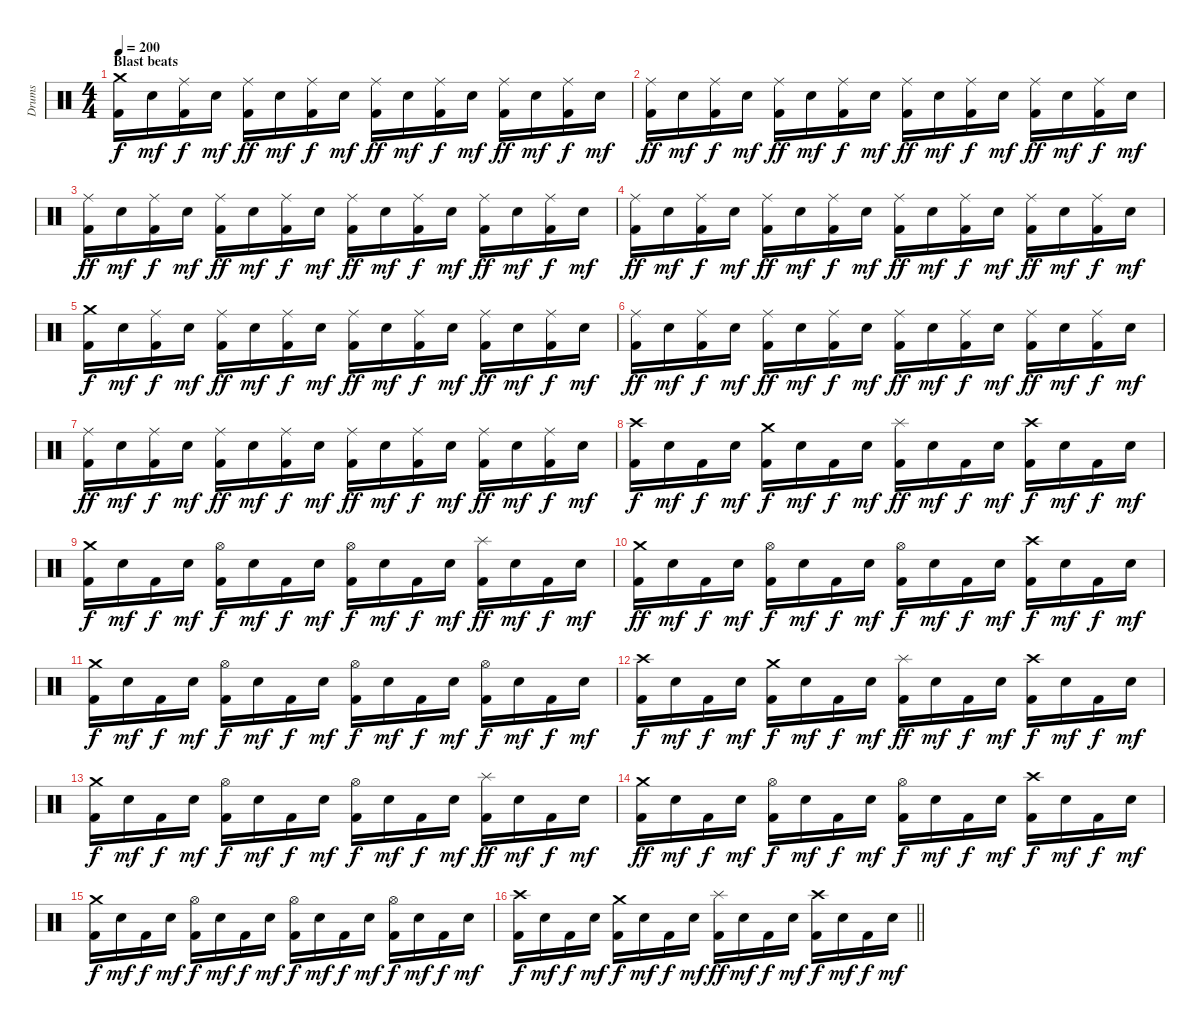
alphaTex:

\track ("Drums" "Drums") {instrument percussion}
\staff {score}
\articulation defaults
\ts (4 4)
\section ("" "Blast beats")
\tempo 200
\clef neutral
\ks c
("Crash medium (hit)" "Kick (hit) 2").16{dy f} "Electric Snare (hit)".16{dy mf} ("Ride (middle)" "Kick (hit) 2").16{dy f} "Electric Snare (hit)".16{dy mf} ("Ride (middle)" "Kick (hit) 2").16{dy ff} "Electric Snare (hit)".16{dy mf} ("Ride (middle)" "Kick (hit) 2").16{dy f} "Electric Snare (hit)".16{dy mf} ("Ride (middle)" "Kick (hit) 2").16{dy ff} "Electric Snare (hit)".16{dy mf} ("Ride (middle)" "Kick (hit) 2").16{dy f} "Electric Snare (hit)".16{dy mf} ("Ride (middle)" "Kick (hit) 2").16{dy ff} "Electric Snare (hit)".16{dy mf} ("Ride (middle)" "Kick (hit) 2").16{dy f} "Electric Snare (hit)".16{dy mf} |
("Ride (middle)" "Kick (hit) 2").16{dy ff} "Electric Snare (hit)".16{dy mf} ("Ride (middle)" "Kick (hit) 2").16{dy f} "Electric Snare (hit)".16{dy mf} ("Ride (middle)" "Kick (hit) 2").16{dy ff} "Electric Snare (hit)".16{dy mf} ("Ride (middle)" "Kick (hit) 2").16{dy f} "Electric Snare (hit)".16{dy mf} ("Ride (middle)" "Kick (hit) 2").16{dy ff} "Electric Snare (hit)".16{dy mf} ("Ride (middle)" "Kick (hit) 2").16{dy f} "Electric Snare (hit)".16{dy mf} ("Ride (middle)" "Kick (hit) 2").16{dy ff} "Electric Snare (hit)".16{dy mf} ("Ride (middle)" "Kick (hit) 2").16{dy f} "Electric Snare (hit)".16{dy mf} |
("Ride (middle)" "Kick (hit) 2").16{dy ff} "Electric Snare (hit)".16{dy mf} ("Ride (middle)" "Kick (hit) 2").16{dy f} "Electric Snare (hit)".16{dy mf} ("Ride (middle)" "Kick (hit) 2").16{dy ff} "Electric Snare (hit)".16{dy mf} ("Ride (middle)" "Kick (hit) 2").16{dy f} "Electric Snare (hit)".16{dy mf} ("Ride (middle)" "Kick (hit) 2").16{dy ff} "Electric Snare (hit)".16{dy mf} ("Ride (middle)" "Kick (hit) 2").16{dy f} "Electric Snare (hit)".16{dy mf} ("Ride (middle)" "Kick (hit) 2").16{dy ff} "Electric Snare (hit)".16{dy mf} ("Ride (middle)" "Kick (hit) 2").16{dy f} "Electric Snare (hit)".16{dy mf} |
("Ride (middle)" "Kick (hit) 2").16{dy ff} "Electric Snare (hit)".16{dy mf} ("Ride (middle)" "Kick (hit) 2").16{dy f} "Electric Snare (hit)".16{dy mf} ("Ride (middle)" "Kick (hit) 2").16{dy ff} "Electric Snare (hit)".16{dy mf} ("Ride (middle)" "Kick (hit) 2").16{dy f} "Electric Snare (hit)".16{dy mf} ("Ride (middle)" "Kick (hit) 2").16{dy ff} "Electric Snare (hit)".16{dy mf} ("Ride (middle)" "Kick (hit) 2").16{dy f} "Electric Snare (hit)".16{dy mf} ("Ride (middle)" "Kick (hit) 2").16{dy ff} "Electric Snare (hit)".16{dy mf} ("Ride (middle)" "Kick (hit) 2").16{dy f} "Electric Snare (hit)".16{dy mf} |
("Crash medium (hit)" "Kick (hit) 2").16{dy f} "Electric Snare (hit)".16{dy mf} ("Ride (middle)" "Kick (hit) 2").16{dy f} "Electric Snare (hit)".16{dy mf} ("Ride (middle)" "Kick (hit) 2").16{dy ff} "Electric Snare (hit)".16{dy mf} ("Ride (middle)" "Kick (hit) 2").16{dy f} "Electric Snare (hit)".16{dy mf} ("Ride (middle)" "Kick (hit) 2").16{dy ff} "Electric Snare (hit)".16{dy mf} ("Ride (middle)" "Kick (hit) 2").16{dy f} "Electric Snare (hit)".16{dy mf} ("Ride (middle)" "Kick (hit) 2").16{dy ff} "Electric Snare (hit)".16{dy mf} ("Ride (middle)" "Kick (hit) 2").16{dy f} "Electric Snare (hit)".16{dy mf} |
("Ride (middle)" "Kick (hit) 2").16{dy ff} "Electric Snare (hit)".16{dy mf} ("Ride (middle)" "Kick (hit) 2").16{dy f} "Electric Snare (hit)".16{dy mf} ("Ride (middle)" "Kick (hit) 2").16{dy ff} "Electric Snare (hit)".16{dy mf} ("Ride (middle)" "Kick (hit) 2").16{dy f} "Electric Snare (hit)".16{dy mf} ("Ride (middle)" "Kick (hit) 2").16{dy ff} "Electric Snare (hit)".16{dy mf} ("Ride (middle)" "Kick (hit) 2").16{dy f} "Electric Snare (hit)".16{dy mf} ("Ride (middle)" "Kick (hit) 2").16{dy ff} "Electric Snare (hit)".16{dy mf} ("Ride (middle)" "Kick (hit) 2").16{dy f} "Electric Snare (hit)".16{dy mf} |
("Ride (middle)" "Kick (hit) 2").16{dy ff} "Electric Snare (hit)".16{dy mf} ("Ride (middle)" "Kick (hit) 2").16{dy f} "Electric Snare (hit)".16{dy mf} ("Ride (middle)" "Kick (hit) 2").16{dy ff} "Electric Snare (hit)".16{dy mf} ("Ride (middle)" "Kick (hit) 2").16{dy f} "Electric Snare (hit)".16{dy mf} ("Ride (middle)" "Kick (hit) 2").16{dy ff} "Electric Snare (hit)".16{dy mf} ("Ride (middle)" "Kick (hit) 2").16{dy f} "Electric Snare (hit)".16{dy mf} ("Ride (middle)" "Kick (hit) 2").16{dy ff} "Electric Snare (hit)".16{dy mf} ("Ride (middle)" "Kick (hit) 2").16{dy f} "Electric Snare (hit)".16{dy mf} |
("Crash high (hit)" "Kick (hit) 2").16{dy f} "Electric Snare (hit)".16{dy mf} "Kick (hit) 2".16{dy f} "Electric Snare (hit)".16{dy mf} ("Crash medium (hit)" "Kick (hit) 2").16{dy f} "Electric Snare (hit)".16{dy mf} "Kick (hit) 2".16{dy f} "Electric Snare (hit)".16{dy mf} ("Splash (hit)" "Kick (hit) 2").16{dy ff} "Electric Snare (hit)".16{dy mf} "Kick (hit) 2".16{dy f} "Electric Snare (hit)".16{dy mf} ("Crash high (hit)" "Kick (hit) 2").16{dy f} "Electric Snare (hit)".16{dy mf} "Kick (hit) 2".16{dy f} "Electric Snare (hit)".16{dy mf} |
("Crash medium (hit)" "Kick (hit) 2").16{dy f} "Electric Snare (hit)".16{dy mf} "Kick (hit) 2".16{dy f} "Electric Snare (hit)".16{dy mf} ("Hi-Hat (open)" "Kick (hit) 2").16{dy f} "Electric Snare (hit)".16{dy mf} "Kick (hit) 2".16{dy f} "Electric Snare (hit)".16{dy mf} ("Hi-Hat (open)" "Kick (hit) 2").16{dy f} "Electric Snare (hit)".16{dy mf} "Kick (hit) 2".16{dy f} "Electric Snare (hit)".16{dy mf} ("Splash (hit)" "Kick (hit) 2").16{dy ff} "Electric Snare (hit)".16{dy mf} "Kick (hit) 2".16{dy f} "Electric Snare (hit)".16{dy mf} |
("Crash medium (hit)" "Kick (hit) 2").16{dy ff} "Electric Snare (hit)".16{dy mf} "Kick (hit) 2".16{dy f} "Electric Snare (hit)".16{dy mf} ("Hi-Hat (open)" "Kick (hit) 2").16{dy f} "Electric Snare (hit)".16{dy mf} "Kick (hit) 2".16{dy f} "Electric Snare (hit)".16{dy mf} ("Hi-Hat (open)" "Kick (hit) 2").16{dy f} "Electric Snare (hit)".16{dy mf} "Kick (hit) 2".16{dy f} "Electric Snare (hit)".16{dy mf} ("Crash high (hit)" "Kick (hit) 2").16{dy f} "Electric Snare (hit)".16{dy mf} "Kick (hit) 2".16{dy f} "Electric Snare (hit)".16{dy mf} |
("Crash medium (hit)" "Kick (hit) 2").16{dy f} "Electric Snare (hit)".16{dy mf} "Kick (hit) 2".16{dy f} "Electric Snare (hit)".16{dy mf} ("Hi-Hat (open)" "Kick (hit) 2").16{dy f} "Electric Snare (hit)".16{dy mf} "Kick (hit) 2".16{dy f} "Electric Snare (hit)".16{dy mf} ("Hi-Hat (open)" "Kick (hit) 2").16{dy f} "Electric Snare (hit)".16{dy mf} "Kick (hit) 2".16{dy f} "Electric Snare (hit)".16{dy mf} ("Hi-Hat (open)" "Kick (hit) 2").16{dy f} "Electric Snare (hit)".16{dy mf} "Kick (hit) 2".16{dy f} "Electric Snare (hit)".16{dy mf} |
("Crash high (hit)" "Kick (hit) 2").16{dy f} "Electric Snare (hit)".16{dy mf} "Kick (hit) 2".16{dy f} "Electric Snare (hit)".16{dy mf} ("Crash medium (hit)" "Kick (hit) 2").16{dy f} "Electric Snare (hit)".16{dy mf} "Kick (hit) 2".16{dy f} "Electric Snare (hit)".16{dy mf} ("Splash (hit)" "Kick (hit) 2").16{dy ff} "Electric Snare (hit)".16{dy mf} "Kick (hit) 2".16{dy f} "Electric Snare (hit)".16{dy mf} ("Crash high (hit)" "Kick (hit) 2").16{dy f} "Electric Snare (hit)".16{dy mf} "Kick (hit) 2".16{dy f} "Electric Snare (hit)".16{dy mf} |
("Crash medium (hit)" "Kick (hit) 2").16{dy f} "Electric Snare (hit)".16{dy mf} "Kick (hit) 2".16{dy f} "Electric Snare (hit)".16{dy mf} ("Hi-Hat (open)" "Kick (hit) 2").16{dy f} "Electric Snare (hit)".16{dy mf} "Kick (hit) 2".16{dy f} "Electric Snare (hit)".16{dy mf} ("Hi-Hat (open)" "Kick (hit) 2").16{dy f} "Electric Snare (hit)".16{dy mf} "Kick (hit) 2".16{dy f} "Electric Snare (hit)".16{dy mf} ("Splash (hit)" "Kick (hit) 2").16{dy ff} "Electric Snare (hit)".16{dy mf} "Kick (hit) 2".16{dy f} "Electric Snare (hit)".16{dy mf} |
("Crash medium (hit)" "Kick (hit) 2").16{dy ff} "Electric Snare (hit)".16{dy mf} "Kick (hit) 2".16{dy f} "Electric Snare (hit)".16{dy mf} ("Hi-Hat (open)" "Kick (hit) 2").16{dy f} "Electric Snare (hit)".16{dy mf} "Kick (hit) 2".16{dy f} "Electric Snare (hit)".16{dy mf} ("Hi-Hat (open)" "Kick (hit) 2").16{dy f} "Electric Snare (hit)".16{dy mf} "Kick (hit) 2".16{dy f} "Electric Snare (hit)".16{dy mf} ("Crash high (hit)" "Kick (hit) 2").16{dy f} "Electric Snare (hit)".16{dy mf} "Kick (hit) 2".16{dy f} "Electric Snare (hit)".16{dy mf} |
("Crash medium (hit)" "Kick (hit) 2").16{dy f} "Electric Snare (hit)".16{dy mf} "Kick (hit) 2".16{dy f} "Electric Snare (hit)".16{dy mf} ("Hi-Hat (open)" "Kick (hit) 2").16{dy f} "Electric Snare (hit)".16{dy mf} "Kick (hit) 2".16{dy f} "Electric Snare (hit)".16{dy mf} ("Hi-Hat (open)" "Kick (hit) 2").16{dy f} "Electric Snare (hit)".16{dy mf} "Kick (hit) 2".16{dy f} "Electric Snare (hit)".16{dy mf} ("Hi-Hat (open)" "Kick (hit) 2").16{dy f} "Electric Snare (hit)".16{dy mf} "Kick (hit) 2".16{dy f} "Electric Snare (hit)".16{dy mf} |
\barLineRight lightlight
("Crash high (hit)" "Kick (hit) 2").16{dy f} "Electric Snare (hit)".16{dy mf} "Kick (hit) 2".16{dy f} "Electric Snare (hit)".16{dy mf} ("Crash medium (hit)" "Kick (hit) 2").16{dy f} "Electric Snare (hit)".16{dy mf} "Kick (hit) 2".16{dy f} "Electric Snare (hit)".16{dy mf} ("Splash (hit)" "Kick (hit) 2").16{dy ff} "Electric Snare (hit)".16{dy mf} "Kick (hit) 2".16{dy f} "Electric Snare (hit)".16{dy mf} ("Crash high (hit)" "Kick (hit) 2").16{dy f} "Electric Snare (hit)".16{dy mf} "Kick (hit) 2".16{dy f} "Electric Snare (hit)".16{dy mf}
